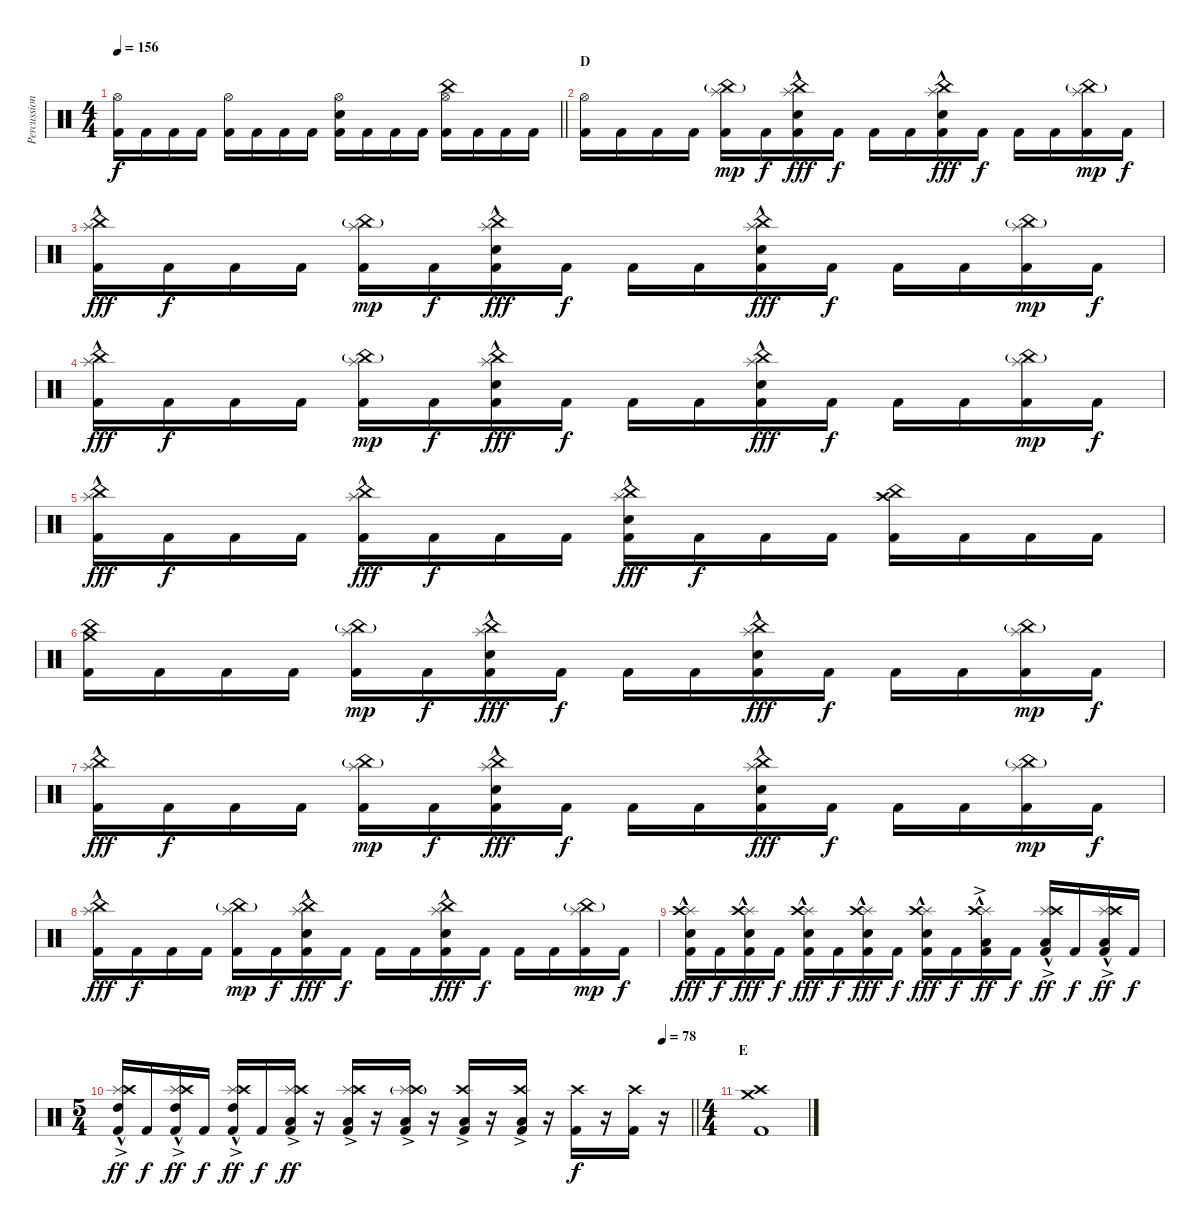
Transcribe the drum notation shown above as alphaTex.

\track ("Percussion" "Percussion") {instrument percussion}
\staff {score}
\articulation defaults
\ts (4 4)
\tempo 156
\clef neutral
\barLineRight lightlight
\ks c
("Hi-Hat (open)" "Kick (hit) 2").16{dy f} "Kick (hit) 2".16 "Kick (hit) 2".16 "Kick (hit) 2".16 ("Hi-Hat (open)" "Kick (hit) 2").16 "Kick (hit) 2".16 "Kick (hit) 2".16 "Kick (hit) 2".16 ("Hi-Hat (open)" "Electric Snare (hit)" "Kick (hit) 2").16 "Kick (hit) 2".16 "Kick (hit) 2".16 "Kick (hit) 2".16 ("China (hit)" "Hi-Hat (open)" "Kick (hit) 2").16 "Kick (hit) 2".16 "Kick (hit) 2".16 "Kick (hit) 2".16 |
\section ("" "D")
("Hi-Hat (open)" "Kick (hit) 2").16 "Kick (hit) 2".16 "Kick (hit) 2".16 "Kick (hit) 2".16 ("Splash (hit)" "China (hit)"{g} "Kick (hit) 2").16{dy mp} "Kick (hit) 2".16{dy f} ("Splash (hit)"{hac} "China (hit)" "Electric Snare (hit)" "Kick (hit) 2").16{dy fff} "Kick (hit) 2".16{dy f} "Kick (hit) 2".16 "Kick (hit) 2".16 ("Splash (hit)"{hac} "China (hit)" "Electric Snare (hit)" "Kick (hit) 2").16{dy fff} "Kick (hit) 2".16{dy f} "Kick (hit) 2".16 "Kick (hit) 2".16 ("Splash (hit)" "China (hit)"{g} "Kick (hit) 2").16{dy mp} "Kick (hit) 2".16{dy f} |
("Splash (hit)"{hac} "China (hit)" "Kick (hit) 2").16{dy fff} "Kick (hit) 2".16{dy f} "Kick (hit) 2".16 "Kick (hit) 2".16 ("Splash (hit)" "China (hit)"{g} "Kick (hit) 2").16{dy mp} "Kick (hit) 2".16{dy f} ("Splash (hit)"{hac} "China (hit)" "Electric Snare (hit)" "Kick (hit) 2").16{dy fff} "Kick (hit) 2".16{dy f} "Kick (hit) 2".16 "Kick (hit) 2".16 ("Splash (hit)"{hac} "China (hit)" "Electric Snare (hit)" "Kick (hit) 2").16{dy fff} "Kick (hit) 2".16{dy f} "Kick (hit) 2".16 "Kick (hit) 2".16 ("Splash (hit)" "China (hit)"{g} "Kick (hit) 2").16{dy mp} "Kick (hit) 2".16{dy f} |
("Splash (hit)"{hac} "China (hit)" "Kick (hit) 2").16{dy fff} "Kick (hit) 2".16{dy f} "Kick (hit) 2".16 "Kick (hit) 2".16 ("Splash (hit)" "China (hit)"{g} "Kick (hit) 2").16{dy mp} "Kick (hit) 2".16{dy f} ("Splash (hit)"{hac} "China (hit)" "Electric Snare (hit)" "Kick (hit) 2").16{dy fff} "Kick (hit) 2".16{dy f} "Kick (hit) 2".16 "Kick (hit) 2".16 ("Splash (hit)"{hac} "China (hit)" "Electric Snare (hit)" "Kick (hit) 2").16{dy fff} "Kick (hit) 2".16{dy f} "Kick (hit) 2".16 "Kick (hit) 2".16 ("Splash (hit)" "China (hit)"{g} "Kick (hit) 2").16{dy mp} "Kick (hit) 2".16{dy f} |
("Splash (hit)"{hac} "China (hit)" "Kick (hit) 2").16{dy fff} "Kick (hit) 2".16{dy f} "Kick (hit) 2".16 "Kick (hit) 2".16 ("Splash (hit)"{hac} "China (hit)" "Kick (hit) 2").16{dy fff} "Kick (hit) 2".16{dy f} "Kick (hit) 2".16 "Kick (hit) 2".16 ("Splash (hit)"{hac} "China (hit)" "Electric Snare (hit)" "Kick (hit) 2").16{dy fff} "Kick (hit) 2".16{dy f} "Kick (hit) 2".16 "Kick (hit) 2".16 ("Crash high (hit)" "China (hit)" "Kick (hit) 2").16 "Kick (hit) 2".16 "Kick (hit) 2".16 "Kick (hit) 2".16 |
("Crash medium (hit)" "China (hit)" "Kick (hit) 2").16 "Kick (hit) 2".16 "Kick (hit) 2".16 "Kick (hit) 2".16 ("Splash (hit)" "China (hit)"{g} "Kick (hit) 2").16{dy mp} "Kick (hit) 2".16{dy f} ("Splash (hit)"{hac} "China (hit)" "Electric Snare (hit)" "Kick (hit) 2").16{dy fff} "Kick (hit) 2".16{dy f} "Kick (hit) 2".16 "Kick (hit) 2".16 ("Splash (hit)"{hac} "China (hit)" "Electric Snare (hit)" "Kick (hit) 2").16{dy fff} "Kick (hit) 2".16{dy f} "Kick (hit) 2".16 "Kick (hit) 2".16 ("Splash (hit)" "China (hit)"{g} "Kick (hit) 2").16{dy mp} "Kick (hit) 2".16{dy f} |
("Splash (hit)"{hac} "China (hit)" "Kick (hit) 2").16{dy fff} "Kick (hit) 2".16{dy f} "Kick (hit) 2".16 "Kick (hit) 2".16 ("Splash (hit)" "China (hit)"{g} "Kick (hit) 2").16{dy mp} "Kick (hit) 2".16{dy f} ("Splash (hit)"{hac} "China (hit)" "Electric Snare (hit)" "Kick (hit) 2").16{dy fff} "Kick (hit) 2".16{dy f} "Kick (hit) 2".16 "Kick (hit) 2".16 ("Splash (hit)"{hac} "China (hit)" "Electric Snare (hit)" "Kick (hit) 2").16{dy fff} "Kick (hit) 2".16{dy f} "Kick (hit) 2".16 "Kick (hit) 2".16 ("Splash (hit)" "China (hit)"{g} "Kick (hit) 2").16{dy mp} "Kick (hit) 2".16{dy f} |
("Splash (hit)"{hac} "China (hit)" "Kick (hit) 2").16{dy fff} "Kick (hit) 2".16{dy f} "Kick (hit) 2".16 "Kick (hit) 2".16 ("Splash (hit)" "China (hit)"{g} "Kick (hit) 2").16{dy mp} "Kick (hit) 2".16{dy f} ("Splash (hit)"{hac} "China (hit)" "Electric Snare (hit)" "Kick (hit) 2").16{dy fff} "Kick (hit) 2".16{dy f} "Kick (hit) 2".16 "Kick (hit) 2".16 ("Splash (hit)"{hac} "China (hit)" "Electric Snare (hit)" "Kick (hit) 2").16{dy fff} "Kick (hit) 2".16{dy f} "Kick (hit) 2".16 "Kick (hit) 2".16 ("Splash (hit)" "China (hit)"{g} "Kick (hit) 2").16{dy mp} "Kick (hit) 2".16{dy f} |
("Splash (hit)"{hac} "Crash high (hit)" "Electric Snare (hit)" "Kick (hit) 2").16{dy fff} "Kick (hit) 2".16{dy f} ("Splash (hit)"{hac} "Crash high (hit)" "Electric Snare (hit)" "Kick (hit) 2").16{dy fff} "Kick (hit) 2".16{dy f} ("Splash (hit)"{hac} "Crash high (hit)" "Electric Snare (hit)" "Kick (hit) 2").16{dy fff} "Kick (hit) 2".16{dy f} ("Splash (hit)"{hac} "Crash high (hit)" "Electric Snare (hit)" "Kick (hit) 2").16{dy fff} "Kick (hit) 2".16{dy f} ("Splash (hit)"{hac} "Crash high (hit)" "Electric Snare (hit)" "Kick (hit) 2").16{dy fff} "Kick (hit) 2".16{dy f} ("Splash (hit)"{hac} "Crash high (hit)" "Low Tom (hit)"{ac} "Kick (hit) 2").16{dy ff} "Kick (hit) 2".16{dy f} ("Splash (hit)"{hac} "Crash high (hit)" "Low Tom (hit)"{ac} "Kick (hit) 2").16{dy ff} "Kick (hit) 2".16{dy f} ("Splash (hit)"{hac} "Crash high (hit)" "Low Tom (hit)"{ac} "Kick (hit) 2").16{dy ff} "Kick (hit) 2".16{dy f} |
\ts (5 4)
\tempo (78 0.95)
\barLineRight lightlight
("Splash (hit)"{hac} "Crash high (hit)" "High Tom (hit)"{ac} "Kick (hit) 2").16{dy ff} "Kick (hit) 2".16{dy f} ("Splash (hit)"{hac} "Crash high (hit)" "High Tom (hit)"{ac} "Kick (hit) 2").16{dy ff} "Kick (hit) 2".16{dy f} ("Splash (hit)"{hac} "Crash high (hit)" "High Tom (hit)"{ac} "Kick (hit) 2").16{dy ff} "Kick (hit) 2".16{dy f} ("Splash (hit)"{ac} "Crash high (hit)" "Low Floor Tom (hit)"{ac} "Kick (hit) 2").16{dy ff} r.16 ("Splash (hit)" "Crash high (hit)" "Low Floor Tom (hit)"{ac} "Kick (hit) 2").16 r.16 ("Splash (hit)"{g} "Crash high (hit)" "Low Floor Tom (hit)"{ac} "Kick (hit) 2").16 r.16 ("Crash high (hit)" "Low Floor Tom (hit)"{ac} "Kick (hit) 2").16 r.16 ("Crash high (hit)" "Low Floor Tom (hit)"{ac} "Kick (hit) 2").16 r.16 ("Crash high (hit)" "Kick (hit) 2").16{dy f} r.16 ("Crash high (hit)" "Kick (hit) 2").16 r.16 |
\ts (4 4)
\section ("" "E")
("Crash medium (hit)" "Crash high (hit)" "Kick (hit) 2").1
